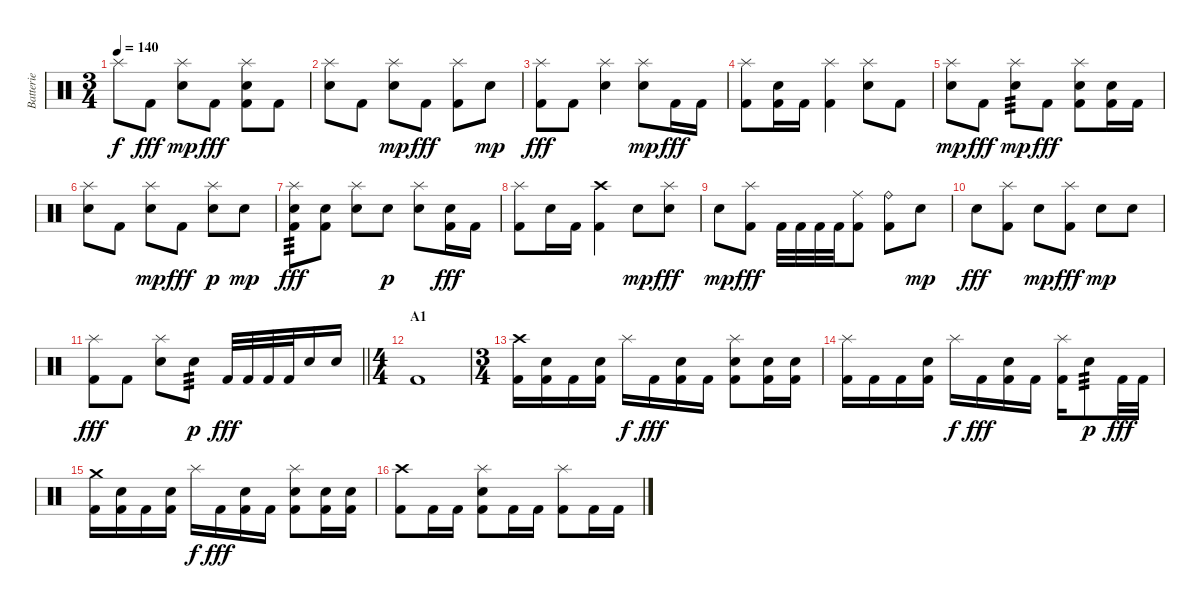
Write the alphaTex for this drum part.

\track ("Batterie" "Batterie") {instrument percussion}
\staff {score}
\articulation defaults
\ts (3 4)
\tempo 140
\clef neutral
\ks c "Splash (hit)".8{dy f} "Kick (hit) 2".8{dy fff}
("Splash (hit)" "Electric Snare (hit)").8{dy mp} "Kick (hit) 2".8{dy fff} ("Splash (hit)" "Electric Snare (hit)" "Kick (hit) 2").8 "Kick (hit) 2".8 |
("Splash (hit)" "Electric Snare (hit)").8 "Kick (hit) 2".8 ("Splash (hit)" "Electric Snare (hit)").8{dy mp} "Kick (hit) 2".8{dy fff} ("Splash (hit)" "Kick (hit) 2").8 "Electric Snare (hit)".8{dy mp} |
("Splash (hit)" "Kick (hit) 2").8{dy fff} "Kick (hit) 2".8 ("Splash (hit)" "Electric Snare (hit)").4 ("Splash (hit)" "Electric Snare (hit)").8{dy mp} "Kick (hit) 2".16{dy fff} "Kick (hit) 2".16 |
("Splash (hit)" "Kick (hit) 2").8 ("Electric Snare (hit)" "Kick (hit) 2").16 "Kick (hit) 2".16 ("Splash (hit)" "Kick (hit) 2").4 ("Splash (hit)" "Electric Snare (hit)").8 "Kick (hit) 2".8 |
("Splash (hit)" "Electric Snare (hit)").8{dy mp} "Kick (hit) 2".8{dy fff} ("Splash (hit)" "Electric Snare (hit)").8{tp 3 dy mp} "Kick (hit) 2".8{dy fff} ("Splash (hit)" "Electric Snare (hit)" "Kick (hit) 2").8 ("Electric Snare (hit)" "Kick (hit) 2").16 "Kick (hit) 2".16 |
("Splash (hit)" "Electric Snare (hit)").8 "Kick (hit) 2".8 ("Splash (hit)" "Electric Snare (hit)").8{dy mp} "Kick (hit) 2".8{dy fff} ("Splash (hit)" "Electric Snare (hit)").8{dy p} "Electric Snare (hit)".8{dy mp} |
("Splash (hit)" "Electric Snare (hit)" "Kick (hit) 2").8{tp 3 dy fff} ("Electric Snare (hit)" "Kick (hit) 2").8 ("Splash (hit)" "Electric Snare (hit)").8 "Electric Snare (hit)".8{dy p} ("Splash (hit)" "Electric Snare (hit)").8 ("Electric Snare (hit)" "Kick (hit) 2").16{dy fff} "Kick (hit) 2".16 |
("Splash (hit)" "Kick (hit) 2").8 "Electric Snare (hit)".16 "Kick (hit) 2".16 ("Crash high (hit)" "Kick (hit) 2").4 "Electric Snare (hit)".8{dy mp} ("Splash (hit)" "Electric Snare (hit)").8{dy fff} |
"Electric Snare (hit)".8{dy mp} ("Splash (hit)" "Kick (hit) 2").8{dy fff} "Kick (hit) 2".32 "Kick (hit) 2".32 "Kick (hit) 2".32 "Kick (hit) 2".32 ("Ride (middle)" "Kick (hit) 2").8 ("Ride (bell)" "Kick (hit) 2").8 "Electric Snare (hit)".8{dy mp} |
"Electric Snare (hit)".8{dy fff} ("Splash (hit)" "Kick (hit) 2").8 "Electric Snare (hit)".8{dy mp} ("Splash (hit)" "Kick (hit) 2").8{dy fff} "Electric Snare (hit)".8{dy mp} "Electric Snare (hit)".8 |
\barLineRight lightlight
("Splash (hit)" "Kick (hit) 2").8{dy fff} "Kick (hit) 2".8 ("Splash (hit)" "Electric Snare (hit)").8 "Electric Snare (hit)".8{tp 3 dy p} "Kick (hit) 2".32{dy fff} "Kick (hit) 2".32 "Kick (hit) 2".32 "Kick (hit) 2".32 "Electric Snare (hit)".16 "Electric Snare (hit)".16 |
\ts (4 4)
\section ("" "A1")
"Kick (hit) 2".1 |
\ts (3 4)
("Crash high (hit)" "Kick (hit) 2").16 ("Electric Snare (hit)" "Kick (hit) 2").16 "Kick (hit) 2".16 ("Electric Snare (hit)" "Kick (hit) 2").16 "Splash (hit)".16{dy f} "Kick (hit) 2".16{dy fff} ("Electric Snare (hit)" "Kick (hit) 2").16 "Kick (hit) 2".16 ("Splash (hit)" "Electric Snare (hit)" "Kick (hit) 2").8 ("Electric Snare (hit)" "Kick (hit) 2").16 ("Electric Snare (hit)" "Kick (hit) 2").16 |
("Splash (hit)" "Kick (hit) 2").16 "Kick (hit) 2".16 "Kick (hit) 2".16 ("Electric Snare (hit)" "Kick (hit) 2").16 "Splash (hit)".16{dy f} "Kick (hit) 2".16{dy fff} ("Electric Snare (hit)" "Kick (hit) 2").16 "Kick (hit) 2".16 ("Splash (hit)" "Kick (hit) 2").16 "Electric Snare (hit)".8{tp 3 dy p} "Kick (hit) 2".32{dy fff} "Kick (hit) 2".32 |
("Crash medium (hit)" "Kick (hit) 2").16 ("Electric Snare (hit)" "Kick (hit) 2").16 "Kick (hit) 2".16 ("Electric Snare (hit)" "Kick (hit) 2").16 "Splash (hit)".16{dy f} "Kick (hit) 2".16{dy fff} ("Electric Snare (hit)" "Kick (hit) 2").16 "Kick (hit) 2".16 ("Splash (hit)" "Electric Snare (hit)" "Kick (hit) 2").8 ("Electric Snare (hit)" "Kick (hit) 2").16 ("Electric Snare (hit)" "Kick (hit) 2").16 |
("Crash high (hit)" "Kick (hit) 2").8 "Kick (hit) 2".16 "Kick (hit) 2".16 ("Splash (hit)" "Electric Snare (hit)" "Kick (hit) 2").8 "Kick (hit) 2".16 "Kick (hit) 2".16 ("Splash (hit)" "Kick (hit) 2").8 "Kick (hit) 2".16 "Kick (hit) 2".16
